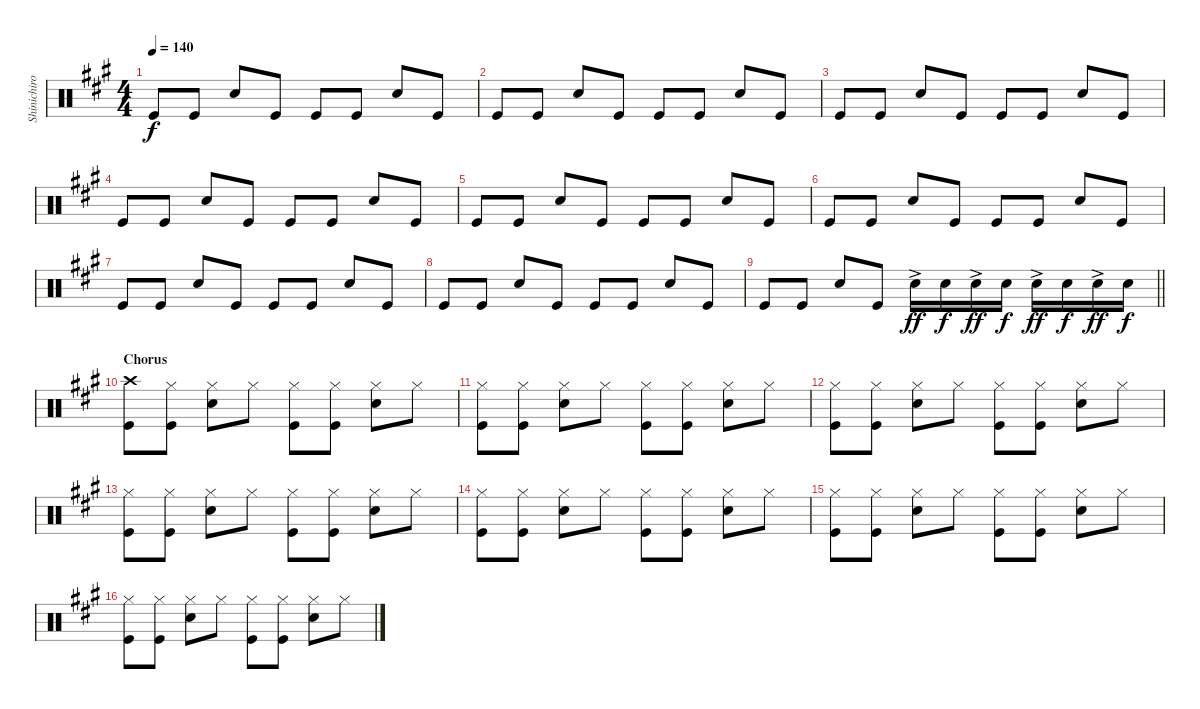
\track ("Shinichiro Drums" "Shinichiro") {instrument percussion}
\staff {score}
\articulation defaults
\ts (4 4)
\tempo 140
\clef neutral
\ks a "Kick (hit)".8{dy f} "Kick (hit)".8 "Snare (hit) 2".8 "Kick (hit)".8 "Kick (hit)".8 "Kick (hit)".8 "Snare (hit) 2".8 "Kick (hit)".8
|
"Kick (hit)".8 "Kick (hit)".8 "Snare (hit) 2".8 "Kick (hit)".8 "Kick (hit)".8 "Kick (hit)".8 "Snare (hit) 2".8 "Kick (hit)".8 |
"Kick (hit)".8 "Kick (hit)".8 "Snare (hit) 2".8 "Kick (hit)".8 "Kick (hit)".8 "Kick (hit)".8 "Snare (hit) 2".8 "Kick (hit)".8 |
"Kick (hit)".8 "Kick (hit)".8 "Snare (hit) 2".8 "Kick (hit)".8 "Kick (hit)".8 "Kick (hit)".8 "Snare (hit) 2".8 "Kick (hit)".8 |
"Kick (hit)".8 "Kick (hit)".8 "Snare (hit) 2".8 "Kick (hit)".8 "Kick (hit)".8 "Kick (hit)".8 "Snare (hit) 2".8 "Kick (hit)".8 |
"Kick (hit)".8 "Kick (hit)".8 "Snare (hit) 2".8 "Kick (hit)".8 "Kick (hit)".8 "Kick (hit)".8 "Snare (hit) 2".8 "Kick (hit)".8 |
"Kick (hit)".8 "Kick (hit)".8 "Snare (hit) 2".8 "Kick (hit)".8 "Kick (hit)".8 "Kick (hit)".8 "Snare (hit) 2".8 "Kick (hit)".8 |
"Kick (hit)".8 "Kick (hit)".8 "Snare (hit) 2".8 "Kick (hit)".8 "Kick (hit)".8 "Kick (hit)".8 "Snare (hit) 2".8 "Kick (hit)".8 |
\barLineRight lightlight "Kick (hit)".8 "Kick (hit)".8 "Snare (hit) 2".8 "Kick (hit)".8 "Snare (hit) 2"{ac}.16{dy ff} "Snare (hit) 2".16{dy f} "Snare (hit) 2"{ac}.16{dy ff} "Snare (hit) 2".16{dy f} "Snare (hit) 2"{ac}.16{dy ff} "Snare (hit) 2".16{dy f} "Snare (hit) 2"{ac}.16{dy ff} "Snare (hit) 2".16{dy f}
|
\section ("" "Chorus")
("Crash high (hit)" "Kick (hit)").8 ("Hi-Hat (closed)" "Kick (hit)").8 ("Hi-Hat (closed)" "Snare (hit) 2").8 "Hi-Hat (closed)".8 ("Hi-Hat (closed)" "Kick (hit)").8 ("Hi-Hat (closed)" "Kick (hit)").8 ("Hi-Hat (closed)" "Snare (hit) 2").8 "Hi-Hat (closed)".8 |
("Hi-Hat (closed)" "Kick (hit)").8 ("Hi-Hat (closed)" "Kick (hit)").8 ("Hi-Hat (closed)" "Snare (hit) 2").8 "Hi-Hat (closed)".8 ("Hi-Hat (closed)" "Kick (hit)").8 ("Hi-Hat (closed)" "Kick (hit)").8 ("Hi-Hat (closed)" "Snare (hit) 2").8 "Hi-Hat (closed)".8 |
("Hi-Hat (closed)" "Kick (hit)").8 ("Hi-Hat (closed)" "Kick (hit)").8 ("Hi-Hat (closed)" "Snare (hit) 2").8 "Hi-Hat (closed)".8 ("Hi-Hat (closed)" "Kick (hit)").8 ("Hi-Hat (closed)" "Kick (hit)").8 ("Hi-Hat (closed)" "Snare (hit) 2").8 "Hi-Hat (closed)".8 |
("Hi-Hat (closed)" "Kick (hit)").8 ("Hi-Hat (closed)" "Kick (hit)").8 ("Hi-Hat (closed)" "Snare (hit) 2").8 "Hi-Hat (closed)".8 ("Hi-Hat (closed)" "Kick (hit)").8 ("Hi-Hat (closed)" "Kick (hit)").8 ("Hi-Hat (closed)" "Snare (hit) 2").8 "Hi-Hat (closed)".8 |
("Hi-Hat (closed)" "Kick (hit)").8 ("Hi-Hat (closed)" "Kick (hit)").8 ("Hi-Hat (closed)" "Snare (hit) 2").8 "Hi-Hat (closed)".8 ("Hi-Hat (closed)" "Kick (hit)").8 ("Hi-Hat (closed)" "Kick (hit)").8 ("Hi-Hat (closed)" "Snare (hit) 2").8 "Hi-Hat (closed)".8 |
("Hi-Hat (closed)" "Kick (hit)").8 ("Hi-Hat (closed)" "Kick (hit)").8 ("Hi-Hat (closed)" "Snare (hit) 2").8 "Hi-Hat (closed)".8 ("Hi-Hat (closed)" "Kick (hit)").8 ("Hi-Hat (closed)" "Kick (hit)").8 ("Hi-Hat (closed)" "Snare (hit) 2").8 "Hi-Hat (closed)".8 |
("Hi-Hat (closed)" "Kick (hit)").8 ("Hi-Hat (closed)" "Kick (hit)").8 ("Hi-Hat (closed)" "Snare (hit) 2").8 "Hi-Hat (closed)".8 ("Hi-Hat (closed)" "Kick (hit)").8 ("Hi-Hat (closed)" "Kick (hit)").8 ("Hi-Hat (closed)" "Snare (hit) 2").8 "Hi-Hat (closed)".8
